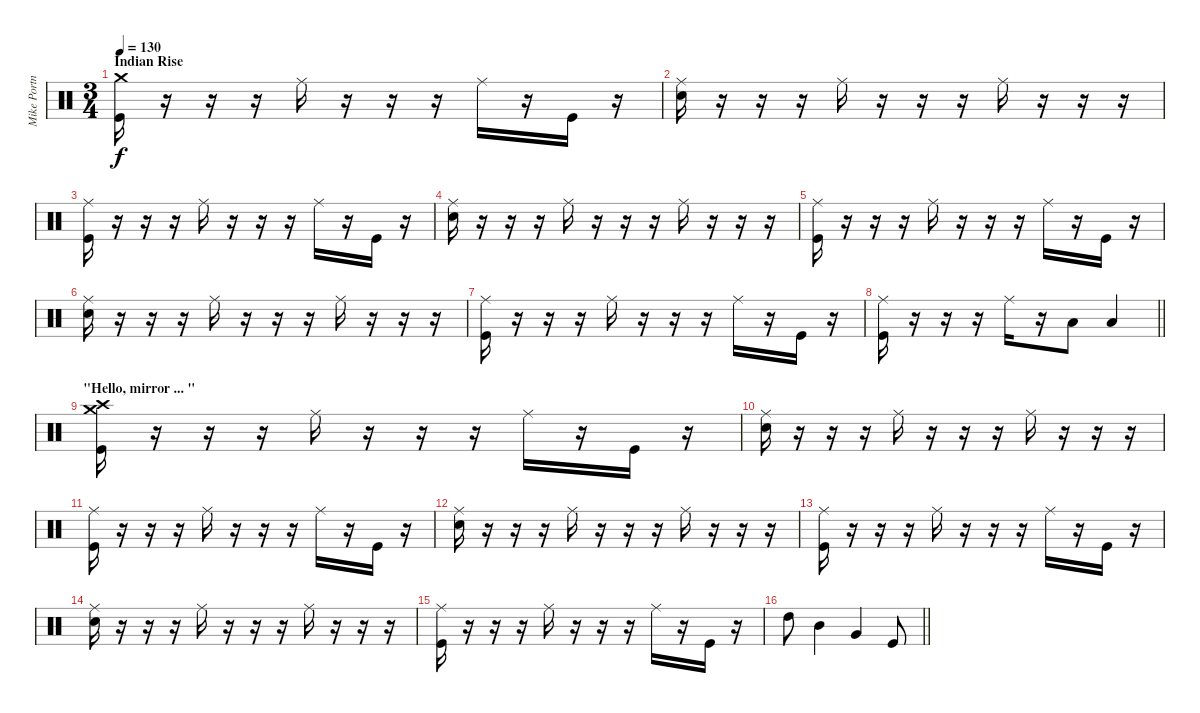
\track ("Mike Portnoy" "Mike Portn") {instrument percussion}
\staff {score}
\articulation defaults
\ts (3 4)
\section ("" "Indian Rise")
\tempo 130
\clef neutral
\ks c
("Kick (hit)" "Crash medium (hit)").16{dy f} r.16 r.16 r.16 "Ride (middle)".16 r.16 r.16 r.16 "Ride (middle)".16 r.16 "Kick (hit)".16 r.16 |
("Electric Snare (hit)" "Ride (middle)").16 r.16 r.16 r.16 "Ride (middle)".16 r.16 r.16 r.16 "Ride (middle)".16 r.16 r.16 r.16 |
("Kick (hit)" "Ride (middle)").16 r.16 r.16 r.16 "Ride (middle)".16 r.16 r.16 r.16 "Ride (middle)".16 r.16 "Kick (hit)".16 r.16 |
("Electric Snare (hit)" "Ride (middle)").16 r.16 r.16 r.16 "Ride (middle)".16 r.16 r.16 r.16 "Ride (middle)".16 r.16 r.16 r.16 |
("Kick (hit)" "Ride (middle)").16 r.16 r.16 r.16 "Ride (middle)".16 r.16 r.16 r.16 "Ride (middle)".16 r.16 "Kick (hit)".16 r.16 |
("Electric Snare (hit)" "Ride (middle)").16 r.16 r.16 r.16 "Ride (middle)".16 r.16 r.16 r.16 "Ride (middle)".16 r.16 r.16 r.16 |
("Kick (hit)" "Ride (middle)").16 r.16 r.16 r.16 "Ride (middle)".16 r.16 r.16 r.16 "Ride (middle)".16 r.16 "Kick (hit)".16 r.16 |
\barLineRight lightlight
("Kick (hit)" "Ride (middle)").16 r.16 r.16 r.16 "Ride (middle)".16 r.16 "Low Floor Tom (hit)".8 "Low Floor Tom (hit)".4 |
\section ("" "\"Hello, mirror ... \"")
("Kick (hit)" "Crash high (hit)" "Crash medium (hit)").16 r.16 r.16 r.16 "Ride (middle)".16 r.16 r.16 r.16 "Ride (middle)".16 r.16 "Kick (hit)".16 r.16 |
("Electric Snare (hit)" "Ride (middle)").16 r.16 r.16 r.16 "Ride (middle)".16 r.16 r.16 r.16 "Ride (middle)".16 r.16 r.16 r.16 |
("Kick (hit)" "Ride (middle)").16 r.16 r.16 r.16 "Ride (middle)".16 r.16 r.16 r.16 "Ride (middle)".16 r.16 "Kick (hit)".16 r.16 |
("Electric Snare (hit)" "Ride (middle)").16 r.16 r.16 r.16 "Ride (middle)".16 r.16 r.16 r.16 "Ride (middle)".16 r.16 r.16 r.16 |
("Kick (hit)" "Ride (middle)").16 r.16 r.16 r.16 "Ride (middle)".16 r.16 r.16 r.16 "Ride (middle)".16 r.16 "Kick (hit)".16 r.16 |
("Electric Snare (hit)" "Ride (middle)").16 r.16 r.16 r.16 "Ride (middle)".16 r.16 r.16 r.16 "Ride (middle)".16 r.16 r.16 r.16 |
("Kick (hit)" "Ride (middle)").16 r.16 r.16 r.16 "Ride (middle)".16 r.16 r.16 r.16 "Ride (middle)".16 r.16 "Kick (hit)".16 r.16 |
\barLineRight lightlight "High Tom (hit)".8 "Mid Tom (hit)".4 "Very Low Tom (hit)".4 "Kick (hit)".8
